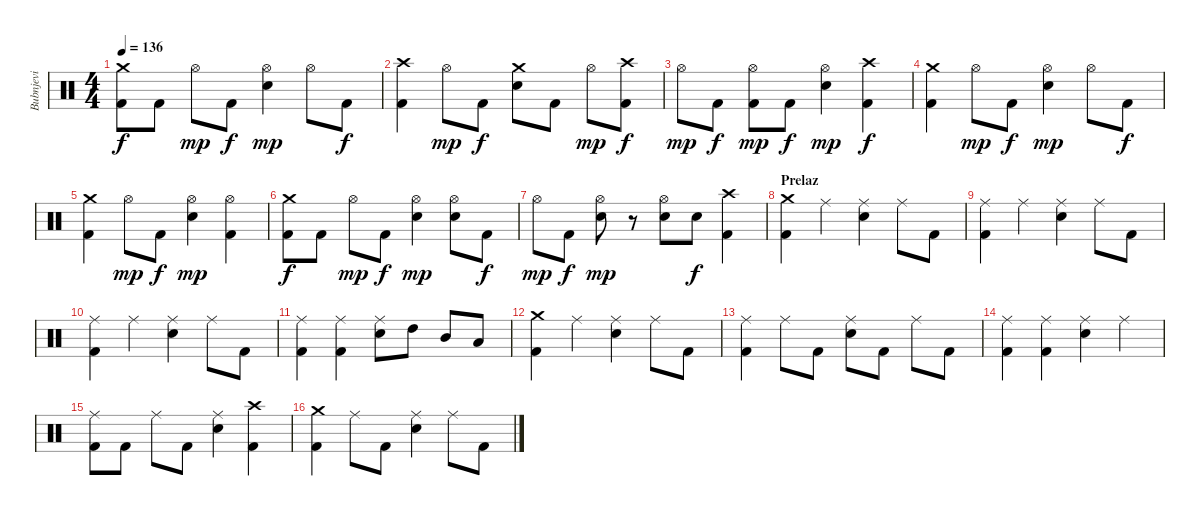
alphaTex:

\track ("Bubnjevi" "Bubnjevi") {instrument percussion}
\staff {score}
\articulation defaults
\ts (4 4)
\tempo 136
\clef neutral
\ks c
("Crash medium (hit)" "Kick (hit) 2").8{dy f} "Kick (hit) 2".8 "Hi-Hat (open)".8{dy mp} "Kick (hit) 2".8{dy f} ("Hi-Hat (open)" "Snare (hit) 2").4{dy mp} "Hi-Hat (open)".8 "Kick (hit) 2".8{dy f} |
("Crash high (hit)" "Kick (hit) 2").4 "Hi-Hat (open)".8{dy mp} "Kick (hit) 2".8{dy f} ("Crash medium (hit)" "Snare (hit) 2").8 "Kick (hit) 2".8 "Hi-Hat (open)".8{dy mp} ("Crash high (hit)" "Kick (hit) 2").8{dy f} |
"Hi-Hat (open)".8{dy mp} "Kick (hit) 2".8{dy f} ("Hi-Hat (open)" "Kick (hit) 2").8{dy mp} "Kick (hit) 2".8{dy f} ("Hi-Hat (open)" "Snare (hit) 2").4{dy mp} ("Crash high (hit)" "Kick (hit) 2").4{dy f} |
("Crash medium (hit)" "Kick (hit) 2").4 "Hi-Hat (open)".8{dy mp} "Kick (hit) 2".8{dy f} ("Hi-Hat (open)" "Snare (hit) 2").4{dy mp} "Hi-Hat (open)".8 "Kick (hit) 2".8{dy f} |
("Crash medium (hit)" "Kick (hit) 2").4 "Hi-Hat (open)".8{dy mp} "Kick (hit) 2".8{dy f} ("Hi-Hat (open)" "Snare (hit) 2").4{dy mp} ("Hi-Hat (open)" "Kick (hit) 2").4 |
("Crash medium (hit)" "Kick (hit) 2").8{dy f} "Kick (hit) 2".8 "Hi-Hat (open)".8{dy mp} "Kick (hit) 2".8{dy f} ("Hi-Hat (open)" "Snare (hit) 2").4{dy mp} ("Hi-Hat (open)" "Snare (hit) 2").8 "Kick (hit) 2".8{dy f} |
"Hi-Hat (open)".8{dy mp} "Kick (hit) 2".8{dy f} ("Hi-Hat (open)" "Snare (hit) 2").8{dy mp} r.8 ("Hi-Hat (open)" "Snare (hit) 2").8 "Snare (hit) 2".8{dy f} ("Crash high (hit)" "Kick (hit) 2").4 |
\section ("" "Prelaz")
("Crash medium (hit)" "Kick (hit) 2").4 "Ride (middle)".4 ("Ride (middle)" "Snare (hit) 2").4 "Ride (middle)".8 "Kick (hit) 2".8 |
("Ride (middle)" "Kick (hit) 2").4 "Ride (middle)".4 ("Ride (middle)" "Snare (hit) 2").4 "Ride (middle)".8 "Kick (hit) 2".8 |
("Ride (middle)" "Kick (hit) 2").4 "Ride (middle)".4 ("Ride (middle)" "Snare (hit) 2").4 "Ride (middle)".8 "Kick (hit) 2".8 |
("Ride (middle)" "Kick (hit) 2").4 ("Ride (middle)" "Kick (hit) 2").4 ("Ride (middle)" "Snare (hit) 2").8 "High Tom (hit)".8 "Mid Tom (hit)".8 "Low Tom (hit)".8 |
("Crash medium (hit)" "Kick (hit) 2").4 "Ride (middle)".4 ("Ride (middle)" "Snare (hit) 2").4 "Ride (middle)".8 "Kick (hit) 2".8 |
("Ride (middle)" "Kick (hit) 2").4 "Ride (middle)".8 "Kick (hit) 2".8 ("Ride (middle)" "Snare (hit) 2").8 "Kick (hit) 2".8 "Ride (middle)".8 "Kick (hit) 2".8 |
("Ride (middle)" "Kick (hit) 2").4 ("Ride (middle)" "Kick (hit) 2").4 ("Ride (middle)" "Snare (hit) 2").4 "Ride (middle)".4 |
("Ride (middle)" "Kick (hit) 2").8 "Kick (hit) 2".8 "Ride (middle)".8 "Kick (hit) 2".8 ("Ride (middle)" "Snare (hit) 2").4 ("Crash high (hit)" "Kick (hit) 2").4 |
("Crash medium (hit)" "Kick (hit) 2").4 "Ride (middle)".8 "Kick (hit) 2".8 ("Ride (middle)" "Snare (hit) 2").4 "Ride (middle)".8 "Kick (hit) 2".8
